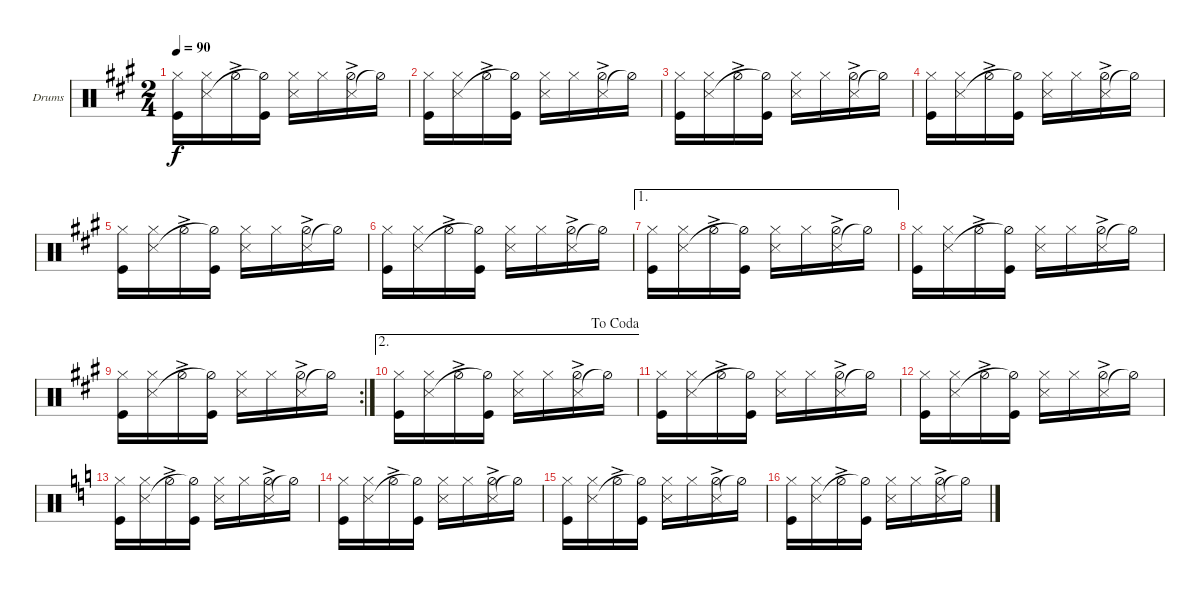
\defaultSystemsLayout 4
\bracketExtendMode groupsimilarinstruments
\firstSystemTrackNameOrientation horizontal
\otherSystemsTrackNameOrientation horizontal
\track ("Bateria" "Drums") {instrument percussion}
\staff {score}
\articulation defaults
\ts (2 4)
\tempo 90
\clef neutral
\scale
0.941992
\ks a
("Hi-Hat (closed)" "Kick (hit)").16{dy f} ("Hi-Hat (closed)" "Snare (side stick) 3").16 "Hi-Hat (half)"{ac}.16 ("Kick (hit)" "Hi-Hat (half)"{t}).16 ("Hi-Hat (closed)" "Snare (side stick) 3").16 "Hi-Hat (closed)".16 ("Snare (side stick) 3" "Hi-Hat (half)"{ac}).16 "Hi-Hat (half)"{t}.16 |
\scale
0.941992 ("Hi-Hat (closed)" "Kick (hit)").16 ("Hi-Hat (closed)" "Snare (side stick) 3").16 "Hi-Hat (half)"{ac}.16 ("Kick (hit)" "Hi-Hat (half)"{t}).16 ("Hi-Hat (closed)" "Snare (side stick) 3").16 "Hi-Hat (closed)".16 ("Snare (side stick) 3" "Hi-Hat (half)"{ac}).16 "Hi-Hat (half)"{t}.16 |
\scale
0.941992 ("Hi-Hat (closed)" "Kick (hit)").16 ("Hi-Hat (closed)" "Snare (side stick) 3").16 "Hi-Hat (half)"{ac}.16 ("Kick (hit)" "Hi-Hat (half)"{t}).16 ("Hi-Hat (closed)" "Snare (side stick) 3").16 "Hi-Hat (closed)".16 ("Snare (side stick) 3" "Hi-Hat (half)"{ac}).16 "Hi-Hat (half)"{t}.16 |
\scale
0.941992 ("Hi-Hat (closed)" "Kick (hit)").16 ("Hi-Hat (closed)" "Snare (side stick) 3").16 "Hi-Hat (half)"{ac}.16 ("Kick (hit)" "Hi-Hat (half)"{t}).16 ("Hi-Hat (closed)" "Snare (side stick) 3").16 "Hi-Hat (closed)".16 ("Snare (side stick) 3" "Hi-Hat (half)"{ac}).16 "Hi-Hat (half)"{t}.16 |
\scale
1.23203 ("Hi-Hat (closed)" "Kick (hit)").16 ("Hi-Hat (closed)" "Snare (side stick) 3").16 "Hi-Hat (half)"{ac}.16 ("Kick (hit)" "Hi-Hat (half)"{t}).16 ("Hi-Hat (closed)" "Snare (side stick) 3").16 "Hi-Hat (closed)".16 ("Snare (side stick) 3" "Hi-Hat (half)"{ac}).16 "Hi-Hat (half)"{t}.16 |
\scale
0.941992 ("Hi-Hat (closed)" "Kick (hit)").16 ("Hi-Hat (closed)" "Snare (side stick) 3").16 "Hi-Hat (half)"{ac}.16 ("Kick (hit)" "Hi-Hat (half)"{t}).16 ("Hi-Hat (closed)" "Snare (side stick) 3").16 "Hi-Hat (closed)".16 ("Snare (side stick) 3" "Hi-Hat (half)"{ac}).16 "Hi-Hat (half)"{t}.16 |
\ae 1
\scale
0.941992 ("Hi-Hat (closed)" "Kick (hit)").16 ("Hi-Hat (closed)" "Snare (side stick) 3").16 "Hi-Hat (half)"{ac}.16 ("Kick (hit)" "Hi-Hat (half)"{t}).16 ("Hi-Hat (closed)" "Snare (side stick) 3").16 "Hi-Hat (closed)".16 ("Snare (side stick) 3" "Hi-Hat (half)"{ac}).16 "Hi-Hat (half)"{t}.16 |
\scale
0.941992 ("Hi-Hat (closed)" "Kick (hit)").16 ("Hi-Hat (closed)" "Snare (side stick) 3").16 "Hi-Hat (half)"{ac}.16 ("Kick (hit)" "Hi-Hat (half)"{t}).16 ("Hi-Hat (closed)" "Snare (side stick) 3").16 "Hi-Hat (closed)".16 ("Snare (side stick) 3" "Hi-Hat (half)"{ac}).16 "Hi-Hat (half)"{t}.16 |
\rc 2
\scale
0.941992 ("Hi-Hat (closed)" "Kick (hit)").16 ("Hi-Hat (closed)" "Snare (side stick) 3").16 "Hi-Hat (half)"{ac}.16 ("Kick (hit)" "Hi-Hat (half)"{t}).16 ("Hi-Hat (closed)" "Snare (side stick) 3").16 "Hi-Hat (closed)".16 ("Snare (side stick) 3" "Hi-Hat (half)"{ac}).16 "Hi-Hat (half)"{t}.16 |
\ae 2
\jump dacoda
\scale
1.23203 ("Hi-Hat (closed)" "Kick (hit)").16 ("Hi-Hat (closed)" "Snare (side stick) 3").16 "Hi-Hat (half)"{ac}.16 ("Kick (hit)" "Hi-Hat (half)"{t}).16 ("Hi-Hat (closed)" "Snare (side stick) 3").16 "Hi-Hat (closed)".16 ("Snare (side stick) 3" "Hi-Hat (half)"{ac}).16 "Hi-Hat (half)"{t}.16 |
\scale
0.941992 ("Hi-Hat (closed)" "Kick (hit)").16 ("Hi-Hat (closed)" "Snare (side stick) 3").16 "Hi-Hat (half)"{ac}.16 ("Kick (hit)" "Hi-Hat (half)"{t}).16 ("Hi-Hat (closed)" "Snare (side stick) 3").16 "Hi-Hat (closed)".16 ("Snare (side stick) 3" "Hi-Hat (half)"{ac}).16 "Hi-Hat (half)"{t}.16 |
\scale
0.941992 ("Hi-Hat (closed)" "Kick (hit)").16 ("Hi-Hat (closed)" "Snare (side stick) 3").16 "Hi-Hat (half)"{ac}.16 ("Kick (hit)" "Hi-Hat (half)"{t}).16 ("Hi-Hat (closed)" "Snare (side stick) 3").16 "Hi-Hat (closed)".16 ("Snare (side stick) 3" "Hi-Hat (half)"{ac}).16 "Hi-Hat (half)"{t}.16 |
\scale
0.941992
\ks aminor
("Hi-Hat (closed)" "Kick (hit)").16 ("Hi-Hat (closed)" "Snare (side stick) 3").16 "Hi-Hat (half)"{ac}.16 ("Kick (hit)" "Hi-Hat (half)"{t}).16 ("Hi-Hat (closed)" "Snare (side stick) 3").16 "Hi-Hat (closed)".16 ("Snare (side stick) 3" "Hi-Hat (half)"{ac}).16 "Hi-Hat (half)"{t}.16 |
\scale
0.941992 ("Hi-Hat (closed)" "Kick (hit)").16 ("Hi-Hat (closed)" "Snare (side stick) 3").16 "Hi-Hat (half)"{ac}.16 ("Kick (hit)" "Hi-Hat (half)"{t}).16 ("Hi-Hat (closed)" "Snare (side stick) 3").16 "Hi-Hat (closed)".16 ("Snare (side stick) 3" "Hi-Hat (half)"{ac}).16 "Hi-Hat (half)"{t}.16 |
\scale
1.10593 ("Hi-Hat (closed)" "Kick (hit)").16 ("Hi-Hat (closed)" "Snare (side stick) 3").16 "Hi-Hat (half)"{ac}.16 ("Kick (hit)" "Hi-Hat (half)"{t}).16 ("Hi-Hat (closed)" "Snare (side stick) 3").16 "Hi-Hat (closed)".16 ("Snare (side stick) 3" "Hi-Hat (half)"{ac}).16 "Hi-Hat (half)"{t}.16 |
\scale
0.973518 ("Hi-Hat (closed)" "Kick (hit)").16 ("Hi-Hat (closed)" "Snare (side stick) 3").16 "Hi-Hat (half)"{ac}.16 ("Kick (hit)" "Hi-Hat (half)"{t}).16 ("Hi-Hat (closed)" "Snare (side stick) 3").16 "Hi-Hat (closed)".16 ("Snare (side stick) 3" "Hi-Hat (half)"{ac}).16 "Hi-Hat (half)"{t}.16
